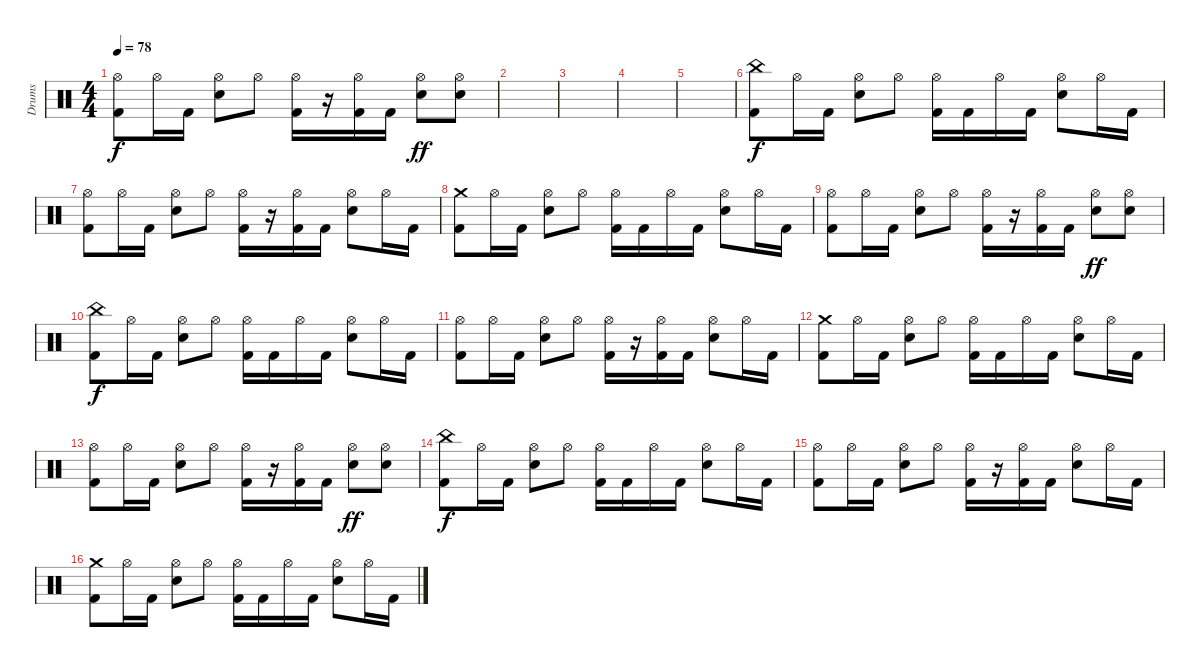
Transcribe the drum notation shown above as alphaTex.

\track ("Drums" "Drums") {instrument percussion}
\staff {score}
\articulation defaults
\ts (4 4)
\tempo 78
\clef neutral
\ks c
("Hi-Hat (open)" "Kick (hit) 2").8{dy f} "Hi-Hat (open)".16 "Kick (hit) 2".16 ("Hi-Hat (open)" "Electric Snare (hit)").8 "Hi-Hat (open)".8 ("Hi-Hat (open)" "Kick (hit) 2").16 r.16 ("Hi-Hat (open)" "Kick (hit) 2").16 "Kick (hit) 2".16 ("Hi-Hat (open)" "Electric Snare (hit)").8{dy ff} ("Hi-Hat (open)" "Electric Snare (hit)").8 |
|
|
|
|
("China (hit)" "Kick (hit) 2").8{dy f} "Hi-Hat (open)".16 "Kick (hit) 2".16 ("Hi-Hat (open)" "Electric Snare (hit)").8 "Hi-Hat (open)".8 ("Hi-Hat (open)" "Kick (hit) 2").16 "Kick (hit) 2".16 "Hi-Hat (open)".16 "Kick (hit) 2".16 ("Hi-Hat (open)" "Electric Snare (hit)").8 "Hi-Hat (open)".16 "Kick (hit) 2".16 |
("Hi-Hat (open)" "Kick (hit) 2").8 "Hi-Hat (open)".16 "Kick (hit) 2".16 ("Hi-Hat (open)" "Electric Snare (hit)").8 "Hi-Hat (open)".8 ("Hi-Hat (open)" "Kick (hit) 2").16 r.16 ("Hi-Hat (open)" "Kick (hit) 2").16 "Kick (hit) 2".16 ("Hi-Hat (open)" "Electric Snare (hit)").8 "Hi-Hat (open)".16 "Kick (hit) 2".16 |
("Crash medium (hit)" "Kick (hit) 2").8 "Hi-Hat (open)".16 "Kick (hit) 2".16 ("Hi-Hat (open)" "Electric Snare (hit)").8 "Hi-Hat (open)".8 ("Hi-Hat (open)" "Kick (hit) 2").16 "Kick (hit) 2".16 "Hi-Hat (open)".16 "Kick (hit) 2".16 ("Hi-Hat (open)" "Electric Snare (hit)").8 "Hi-Hat (open)".16 "Kick (hit) 2".16 |
("Hi-Hat (open)" "Kick (hit) 2").8 "Hi-Hat (open)".16 "Kick (hit) 2".16 ("Hi-Hat (open)" "Electric Snare (hit)").8 "Hi-Hat (open)".8 ("Hi-Hat (open)" "Kick (hit) 2").16 r.16 ("Hi-Hat (open)" "Kick (hit) 2").16 "Kick (hit) 2".16 ("Hi-Hat (open)" "Electric Snare (hit)").8{dy ff} ("Hi-Hat (open)" "Electric Snare (hit)").8 |
("China (hit)" "Kick (hit) 2").8{dy f} "Hi-Hat (open)".16 "Kick (hit) 2".16 ("Hi-Hat (open)" "Electric Snare (hit)").8 "Hi-Hat (open)".8 ("Hi-Hat (open)" "Kick (hit) 2").16 "Kick (hit) 2".16 "Hi-Hat (open)".16 "Kick (hit) 2".16 ("Hi-Hat (open)" "Electric Snare (hit)").8 "Hi-Hat (open)".16 "Kick (hit) 2".16 |
("Hi-Hat (open)" "Kick (hit) 2").8 "Hi-Hat (open)".16 "Kick (hit) 2".16 ("Hi-Hat (open)" "Electric Snare (hit)").8 "Hi-Hat (open)".8 ("Hi-Hat (open)" "Kick (hit) 2").16 r.16 ("Hi-Hat (open)" "Kick (hit) 2").16 "Kick (hit) 2".16 ("Hi-Hat (open)" "Electric Snare (hit)").8 "Hi-Hat (open)".16 "Kick (hit) 2".16 |
("Crash medium (hit)" "Kick (hit) 2").8 "Hi-Hat (open)".16 "Kick (hit) 2".16 ("Hi-Hat (open)" "Electric Snare (hit)").8 "Hi-Hat (open)".8 ("Hi-Hat (open)" "Kick (hit) 2").16 "Kick (hit) 2".16 "Hi-Hat (open)".16 "Kick (hit) 2".16 ("Hi-Hat (open)" "Electric Snare (hit)").8 "Hi-Hat (open)".16 "Kick (hit) 2".16 |
("Hi-Hat (open)" "Kick (hit) 2").8 "Hi-Hat (open)".16 "Kick (hit) 2".16 ("Hi-Hat (open)" "Electric Snare (hit)").8 "Hi-Hat (open)".8 ("Hi-Hat (open)" "Kick (hit) 2").16 r.16 ("Hi-Hat (open)" "Kick (hit) 2").16 "Kick (hit) 2".16 ("Hi-Hat (open)" "Electric Snare (hit)").8{dy ff} ("Hi-Hat (open)" "Electric Snare (hit)").8 |
("China (hit)" "Kick (hit) 2").8{dy f} "Hi-Hat (open)".16 "Kick (hit) 2".16 ("Hi-Hat (open)" "Electric Snare (hit)").8 "Hi-Hat (open)".8 ("Hi-Hat (open)" "Kick (hit) 2").16 "Kick (hit) 2".16 "Hi-Hat (open)".16 "Kick (hit) 2".16 ("Hi-Hat (open)" "Electric Snare (hit)").8 "Hi-Hat (open)".16 "Kick (hit) 2".16 |
("Hi-Hat (open)" "Kick (hit) 2").8 "Hi-Hat (open)".16 "Kick (hit) 2".16 ("Hi-Hat (open)" "Electric Snare (hit)").8 "Hi-Hat (open)".8 ("Hi-Hat (open)" "Kick (hit) 2").16 r.16 ("Hi-Hat (open)" "Kick (hit) 2").16 "Kick (hit) 2".16 ("Hi-Hat (open)" "Electric Snare (hit)").8 "Hi-Hat (open)".16 "Kick (hit) 2".16 |
("Crash medium (hit)" "Kick (hit) 2").8 "Hi-Hat (open)".16 "Kick (hit) 2".16 ("Hi-Hat (open)" "Electric Snare (hit)").8 "Hi-Hat (open)".8 ("Hi-Hat (open)" "Kick (hit) 2").16 "Kick (hit) 2".16 "Hi-Hat (open)".16 "Kick (hit) 2".16 ("Hi-Hat (open)" "Electric Snare (hit)").8 "Hi-Hat (open)".16 "Kick (hit) 2".16
